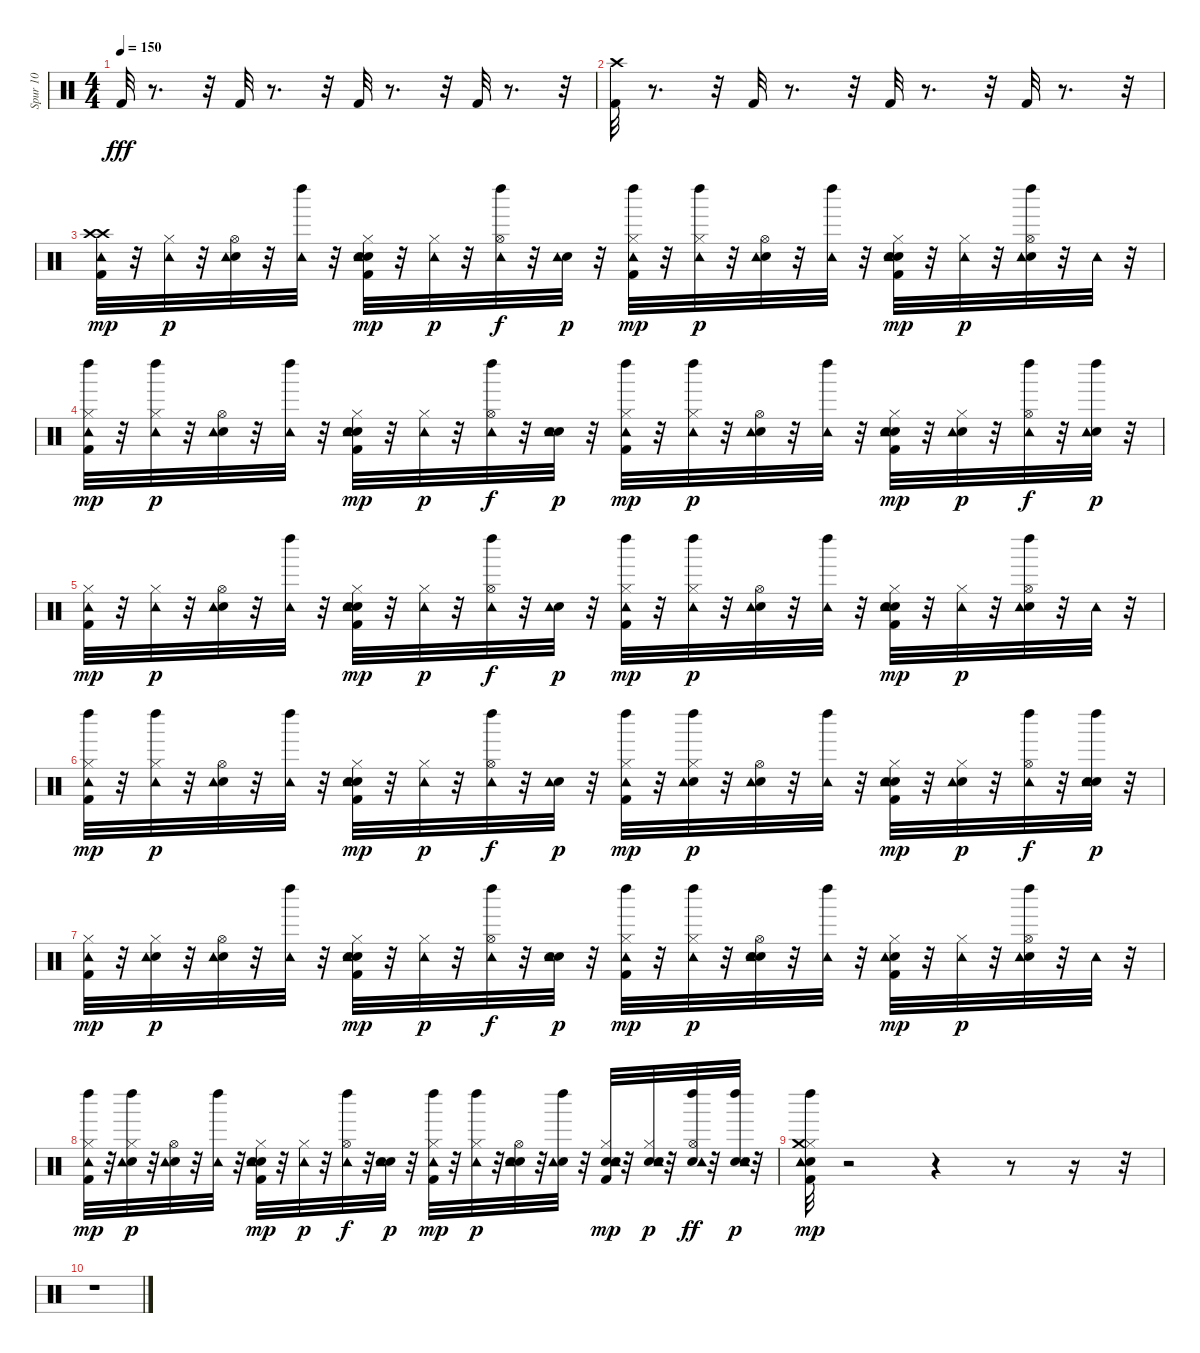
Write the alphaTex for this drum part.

\track ("Spur 10" "Spur 10") {instrument percussion}
\staff {score}
\articulation defaults
\ts (4 4)
\tempo 150
\clef neutral
\ks c "Kick (hit) 2".32{dy fff}
r.8{d} r.32 "Kick (hit) 2".32 r.8{d} r.32 "Kick (hit) 2".32 r.8{d} r.32 "Kick (hit) 2".32 r.8{d} r.32 |
("Crash high (hit)" "Kick (hit) 2").32 r.8{d} r.32 "Kick (hit) 2".32 r.8{d} r.32 "Kick (hit) 2".32 r.8{d} r.32 "Kick (hit) 2".32 r.8{d} r.32 |
("Crash high (hit)" "Kick (hit) 2" "Crash high (hit)" "Tambourine (hit)").32{dy mp} r.32 ("Hi-Hat (closed)" "Tambourine (hit)").32{dy p} r.32 ("Hand Clap (hit)" "Hi-Hat (open)" "Tambourine (hit)").32 r.32 ("Tambourine (hit)" "Left Maraca (hit)").32 r.32 ("Kick (hit) 2" "Snare (hit) 2" "Hand Clap (hit)" "Hi-Hat (closed)" "Tambourine (hit)").32{dy mp} r.32 ("Hi-Hat (closed)" "Tambourine (hit)").32{dy p} r.32 ("Hi-Hat (open)" "Tambourine (hit)" "Left Maraca (hit)").32{dy f} r.32 ("Hand Clap (hit)" "Tambourine (hit)").32{dy p} r.32 ("Kick (hit) 2" "Hi-Hat (closed)" "Tambourine (hit)" "Left Maraca (hit)").32{dy mp} r.32 ("Hi-Hat (closed)" "Tambourine (hit)" "Left Maraca (hit)").32{dy p} r.32 ("Hand Clap (hit)" "Hi-Hat (open)" "Tambourine (hit)").32 r.32 ("Tambourine (hit)" "Left Maraca (hit)").32 r.32 ("Kick (hit) 2" "Snare (hit) 2" "Hand Clap (hit)" "Hi-Hat (closed)" "Tambourine (hit)").32{dy mp} r.32 ("Hi-Hat (closed)" "Tambourine (hit)").32{dy p} r.32 ("Hand Clap (hit)" "Hi-Hat (open)" "Tambourine (hit)" "Left Maraca (hit)").32 r.32 "Tambourine (hit)".32 r.32 |
("Kick (hit) 2" "Hi-Hat (closed)" "Tambourine (hit)" "Left Maraca (hit)").32{dy mp} r.32 ("Hi-Hat (closed)" "Tambourine (hit)" "Left Maraca (hit)").32{dy p} r.32 ("Hand Clap (hit)" "Hi-Hat (open)" "Tambourine (hit)").32 r.32 ("Tambourine (hit)" "Left Maraca (hit)").32 r.32 ("Kick (hit) 2" "Snare (hit) 2" "Hand Clap (hit)" "Hi-Hat (closed)" "Tambourine (hit)").32{dy mp} r.32 ("Hi-Hat (closed)" "Tambourine (hit)").32{dy p} r.32 ("Hi-Hat (open)" "Tambourine (hit)" "Left Maraca (hit)").32{dy f} r.32 ("Snare (hit) 2" "Hand Clap (hit)" "Tambourine (hit)").32{dy p} r.32 ("Kick (hit) 2" "Hi-Hat (closed)" "Tambourine (hit)" "Left Maraca (hit)").32{dy mp} r.32 ("Hi-Hat (closed)" "Tambourine (hit)" "Left Maraca (hit)").32{dy p} r.32 ("Hand Clap (hit)" "Hi-Hat (open)" "Tambourine (hit)").32 r.32 ("Tambourine (hit)" "Left Maraca (hit)").32 r.32 ("Kick (hit) 2" "Snare (hit) 2" "Hand Clap (hit)" "Hi-Hat (closed)" "Tambourine (hit)").32{dy mp} r.32 ("Hand Clap (hit)" "Hi-Hat (closed)" "Tambourine (hit)").32{dy p} r.32 ("Hi-Hat (open)" "Tambourine (hit)" "Left Maraca (hit)").32{dy f} r.32 ("Hand Clap (hit)" "Tambourine (hit)" "Left Maraca (hit)").32{dy p} r.32 |
("Kick (hit) 2" "Hi-Hat (closed)" "Tambourine (hit)").32{dy mp} r.32 ("Hi-Hat (closed)" "Tambourine (hit)").32{dy p} r.32 ("Hand Clap (hit)" "Hi-Hat (open)" "Tambourine (hit)").32 r.32 ("Tambourine (hit)" "Left Maraca (hit)").32 r.32 ("Kick (hit) 2" "Snare (hit) 2" "Hand Clap (hit)" "Hi-Hat (closed)" "Tambourine (hit)").32{dy mp} r.32 ("Hi-Hat (closed)" "Tambourine (hit)").32{dy p} r.32 ("Hi-Hat (open)" "Tambourine (hit)" "Left Maraca (hit)").32{dy f} r.32 ("Hand Clap (hit)" "Tambourine (hit)").32{dy p} r.32 ("Kick (hit) 2" "Hi-Hat (closed)" "Tambourine (hit)" "Left Maraca (hit)").32{dy mp} r.32 ("Hi-Hat (closed)" "Tambourine (hit)" "Left Maraca (hit)").32{dy p} r.32 ("Hand Clap (hit)" "Hi-Hat (open)" "Tambourine (hit)").32 r.32 ("Tambourine (hit)" "Left Maraca (hit)").32 r.32 ("Kick (hit) 2" "Snare (hit) 2" "Hand Clap (hit)" "Hi-Hat (closed)" "Tambourine (hit)").32{dy mp} r.32 ("Hi-Hat (closed)" "Tambourine (hit)").32{dy p} r.32 ("Hand Clap (hit)" "Hi-Hat (open)" "Tambourine (hit)" "Left Maraca (hit)").32 r.32 "Tambourine (hit)".32 r.32 |
("Kick (hit) 2" "Hi-Hat (closed)" "Tambourine (hit)" "Left Maraca (hit)").32{dy mp} r.32 ("Hi-Hat (closed)" "Tambourine (hit)" "Left Maraca (hit)").32{dy p} r.32 ("Hand Clap (hit)" "Hi-Hat (open)" "Tambourine (hit)").32 r.32 ("Tambourine (hit)" "Left Maraca (hit)").32 r.32 ("Kick (hit) 2" "Snare (hit) 2" "Hand Clap (hit)" "Hi-Hat (closed)" "Tambourine (hit)").32{dy mp} r.32 ("Hi-Hat (closed)" "Tambourine (hit)").32{dy p} r.32 ("Hi-Hat (open)" "Tambourine (hit)" "Left Maraca (hit)").32{dy f} r.32 ("Hand Clap (hit)" "Tambourine (hit)").32{dy p} r.32 ("Kick (hit) 2" "Hi-Hat (closed)" "Tambourine (hit)" "Left Maraca (hit)").32{dy mp} r.32 ("Snare (hit) 2" "Hi-Hat (closed)" "Tambourine (hit)" "Left Maraca (hit)").32{dy p} r.32 ("Hand Clap (hit)" "Hi-Hat (open)" "Tambourine (hit)").32 r.32 ("Tambourine (hit)" "Left Maraca (hit)").32 r.32 ("Kick (hit) 2" "Snare (hit) 2" "Hand Clap (hit)" "Hi-Hat (closed)" "Tambourine (hit)").32{dy mp} r.32 ("Hand Clap (hit)" "Hi-Hat (closed)" "Tambourine (hit)").32{dy p} r.32 ("Hi-Hat (open)" "Tambourine (hit)" "Left Maraca (hit)").32{dy f} r.32 ("Snare (hit) 2" "Hand Clap (hit)" "Tambourine (hit)" "Left Maraca (hit)").32{dy p} r.32 |
("Kick (hit) 2" "Hi-Hat (closed)" "Tambourine (hit)").32{dy mp} r.32 ("Snare (hit) 2" "Hi-Hat (closed)" "Tambourine (hit)").32{dy p} r.32 ("Hand Clap (hit)" "Hi-Hat (open)" "Tambourine (hit)").32 r.32 ("Tambourine (hit)" "Left Maraca (hit)").32 r.32 ("Kick (hit) 2" "Snare (hit) 2" "Hand Clap (hit)" "Hi-Hat (closed)" "Tambourine (hit)").32{dy mp} r.32 ("Hi-Hat (closed)" "Tambourine (hit)").32{dy p} r.32 ("Hi-Hat (open)" "Tambourine (hit)" "Left Maraca (hit)").32{dy f} r.32 ("Snare (hit) 2" "Hand Clap (hit)" "Tambourine (hit)").32{dy p} r.32 ("Kick (hit) 2" "Hi-Hat (closed)" "Tambourine (hit)" "Left Maraca (hit)").32{dy mp} r.32 ("Hi-Hat (closed)" "Tambourine (hit)" "Left Maraca (hit)").32{dy p} r.32 ("Snare (hit) 2" "Hand Clap (hit)" "Hi-Hat (open)" "Tambourine (hit)").32 r.32 ("Tambourine (hit)" "Left Maraca (hit)").32 r.32 ("Kick (hit) 2" "Hand Clap (hit)" "Hi-Hat (closed)" "Tambourine (hit)").32{dy mp} r.32 ("Hi-Hat (closed)" "Tambourine (hit)").32{dy p} r.32 ("Hand Clap (hit)" "Hi-Hat (open)" "Tambourine (hit)" "Left Maraca (hit)").32 r.32 "Tambourine (hit)".32 r.32 |
("Kick (hit) 2" "Hi-Hat (closed)" "Tambourine (hit)" "Left Maraca (hit)").32{dy mp} r.32 ("Snare (hit) 2" "Hi-Hat (closed)" "Tambourine (hit)" "Left Maraca (hit)").32{dy p} r.32 ("Hand Clap (hit)" "Hi-Hat (open)" "Tambourine (hit)").32 r.32 ("Tambourine (hit)" "Left Maraca (hit)").32 r.32 ("Kick (hit) 2" "Snare (hit) 2" "Hand Clap (hit)" "Hi-Hat (closed)" "Tambourine (hit)").32{dy mp} r.32 ("Hi-Hat (closed)" "Tambourine (hit)").32{dy p} r.32 ("Hi-Hat (open)" "Tambourine (hit)" "Left Maraca (hit)").32{dy f} r.32 ("Snare (hit) 2" "Hand Clap (hit)" "Tambourine (hit)").32{dy p} r.32 ("Kick (hit) 2" "Hi-Hat (closed)" "Tambourine (hit)" "Left Maraca (hit)").32{dy mp} r.32 ("Hi-Hat (closed)" "Tambourine (hit)" "Left Maraca (hit)").32{dy p} r.32 ("Snare (hit) 2" "Hand Clap (hit)" "Hi-Hat (open)" "Tambourine (hit)").32 r.32 ("Snare (hit) 2" "Tambourine (hit)" "Left Maraca (hit)").32 r.32 ("Kick (hit) 2" "Snare (hit) 2" "Hand Clap (hit)" "Hi-Hat (closed)" "Tambourine (hit)").32{dy mp} r.32 ("Snare (hit) 2" "Hand Clap (hit)" "Hi-Hat (closed)" "Tambourine (hit)").32{dy p} r.32 ("Snare (hit) 2" "Hi-Hat (open)" "Tambourine (hit)" "Left Maraca (hit)").32{dy ff} r.32 ("Snare (hit) 2" "Hand Clap (hit)" "Tambourine (hit)" "Left Maraca (hit)").32{dy p} r.32 |
("Kick (hit) 2" "Snare (hit) 2" "Hi-Hat (closed)" "Tambourine (hit)" "Crash medium (hit)" "Left Maraca (hit)").32{dy mp} r.2 r.4 r.8 r.16 r.32 |
r.1
